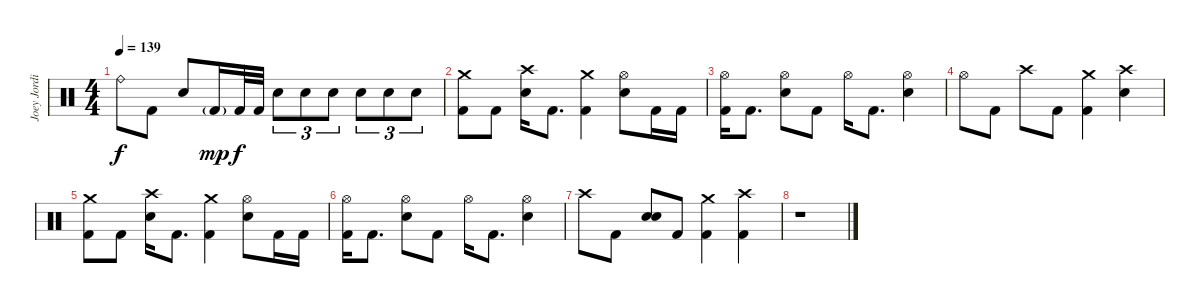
\track ("Joey Jordison" "Joey Jordi") {instrument percussion}
\staff {score}
\articulation defaults
\ts (4 4)
\tempo 139
\clef neutral
\ks c "Ride (bell)".8{dy f} "Kick (hit) 2".8 "Electric Snare (hit)".8 "Kick (hit) 2"{g}.16{dy mp} "Kick (hit) 2".32{dy f} "Kick (hit) 2".32 "Electric Snare (hit)".8{tu (3 2)} "Electric Snare (hit)".8{tu (3 2)} "Electric Snare (hit)".8{tu (3 2)} "Electric Snare (hit)".8{tu (3 2)} "Electric Snare (hit)".8{tu (3 2)} "Electric Snare (hit)".8{tu (3 2)}
|
("Crash medium (hit)" "Kick (hit) 2").8 "Kick (hit) 2".8 ("Crash high (hit)" "Electric Snare (hit)").16 "Kick (hit) 2".8{d} ("Crash medium (hit)" "Kick (hit) 2").4 ("Hi-Hat (open)" "Electric Snare (hit)").8 "Kick (hit) 2".16 "Kick (hit) 2".16 |
("Hi-Hat (open)" "Kick (hit) 2").16 "Kick (hit) 2".8{d} ("Hi-Hat (open)" "Electric Snare (hit)").8 "Kick (hit) 2".8 "Hi-Hat (open)".16 "Kick (hit) 2".8{d} ("Hi-Hat (open)" "Electric Snare (hit)").4 |
"Hi-Hat (open)".8 "Kick (hit) 2".8 "Crash high (hit)".8 "Kick (hit) 2".8 ("Crash medium (hit)" "Kick (hit) 2").4 ("Crash high (hit)" "Electric Snare (hit)").4 |
("Crash medium (hit)" "Kick (hit) 2").8 "Kick (hit) 2".8 ("Crash high (hit)" "Electric Snare (hit)").16 "Kick (hit) 2".8{d} ("Crash medium (hit)" "Kick (hit) 2").4 ("Hi-Hat (open)" "Electric Snare (hit)").8 "Kick (hit) 2".16 "Kick (hit) 2".16 |
("Hi-Hat (open)" "Kick (hit) 2").16 "Kick (hit) 2".8{d} ("Hi-Hat (open)" "Electric Snare (hit)").8 "Kick (hit) 2".8 "Hi-Hat (open)".16 "Kick (hit) 2".8{d} ("Hi-Hat (open)" "Electric Snare (hit)").4 |
"Crash high (hit)".8 "Kick (hit) 2".8 ("Electric Snare (hit)" "Electric Snare (hit)").8{bd 240} "Kick (hit) 2".8 ("Crash medium (hit)" "Kick (hit) 2").4 ("Crash high (hit)" "Kick (hit) 2").4 |
r.1
